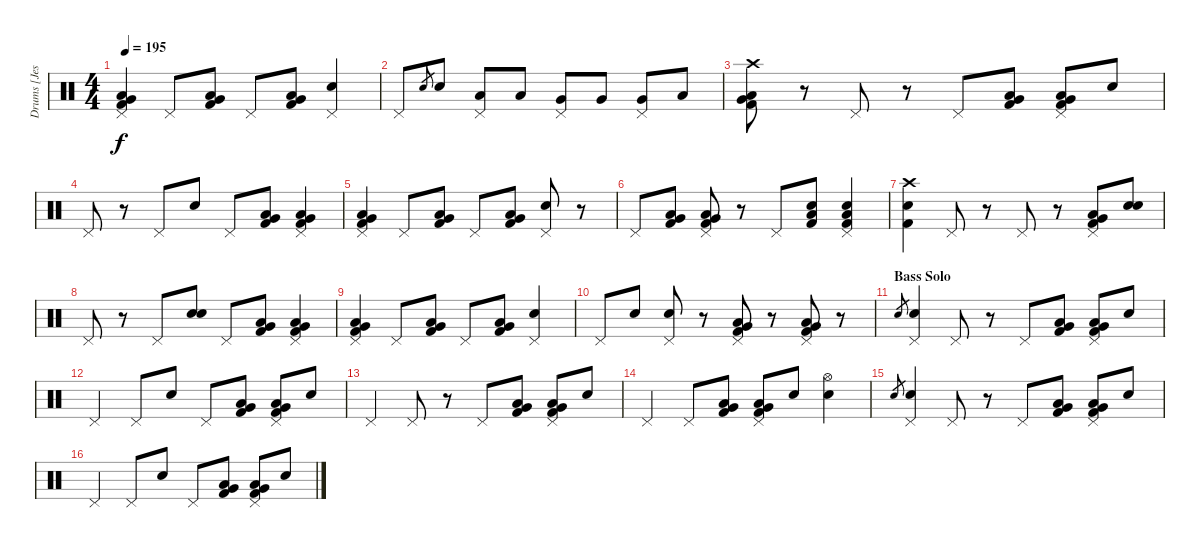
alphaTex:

\track ("Drums [Jesse Ingelevics]" "Drums [Jes") {instrument percussion}
\staff {score}
\articulation defaults
\ts (4 4)
\tempo 195
\clef neutral
\ks c
("Pedal Hi-Hat (hit)" "Very Low Tom (hit)" "Low Floor Tom (hit)" "Kick (hit) 2").4{dy f} "Pedal Hi-Hat (hit)".8 ("Very Low Tom (hit)" "Low Floor Tom (hit)" "Kick (hit) 2").8 "Pedal Hi-Hat (hit)".8 ("Very Low Tom (hit)" "Low Floor Tom (hit)" "Kick (hit) 2").8 ("Pedal Hi-Hat (hit)" "Electric Snare (hit)").4 |
"Pedal Hi-Hat (hit)".8 "Electric Snare (hit)".8{gr} "Electric Snare (hit)".8 ("Pedal Hi-Hat (hit)" "Low Tom (hit)").8 "Low Tom (hit)".8 ("Pedal Hi-Hat (hit)" "Very Low Tom (hit)").8 "Very Low Tom (hit)".8 ("Pedal Hi-Hat (hit)" "Very Low Tom (hit)").8 "Low Floor Tom (hit)".8 |
("Crash high (hit)" "Very Low Tom (hit)" "Low Floor Tom (hit)" "Kick (hit) 2").8 r.8 "Pedal Hi-Hat (hit)".8 r.8 "Pedal Hi-Hat (hit)".8 ("Very Low Tom (hit)" "Low Floor Tom (hit)" "Kick (hit) 2").8 ("Pedal Hi-Hat (hit)" "Very Low Tom (hit)" "Low Floor Tom (hit)" "Kick (hit) 2").8 "Electric Snare (hit)".8 |
"Pedal Hi-Hat (hit)".8 r.8 "Pedal Hi-Hat (hit)".8 "Electric Snare (hit)".8 "Pedal Hi-Hat (hit)".8 ("Very Low Tom (hit)" "Low Floor Tom (hit)" "Kick (hit) 2").8 ("Pedal Hi-Hat (hit)" "Very Low Tom (hit)" "Low Floor Tom (hit)" "Kick (hit) 2").4 |
("Pedal Hi-Hat (hit)" "Very Low Tom (hit)" "Low Floor Tom (hit)" "Kick (hit) 2").4 "Pedal Hi-Hat (hit)".8 ("Very Low Tom (hit)" "Low Floor Tom (hit)" "Kick (hit) 2").8 "Pedal Hi-Hat (hit)".8 ("Very Low Tom (hit)" "Low Floor Tom (hit)" "Kick (hit) 2").8 ("Pedal Hi-Hat (hit)" "Electric Snare (hit)").8 r.8 |
"Pedal Hi-Hat (hit)".8 ("Very Low Tom (hit)" "Low Floor Tom (hit)" "Kick (hit) 2").8 ("Pedal Hi-Hat (hit)" "Very Low Tom (hit)" "Low Floor Tom (hit)" "Kick (hit) 2").8 r.8 "Pedal Hi-Hat (hit)".8 ("Electric Snare (hit)" "Low Floor Tom (hit)" "Kick (hit) 2").8 ("Pedal Hi-Hat (hit)" "Electric Snare (hit)" "Low Floor Tom (hit)" "Kick (hit) 2").4 |
("Crash high (hit)" "Electric Snare (hit)" "Kick (hit) 2").4 "Pedal Hi-Hat (hit)".8 r.8 "Pedal Hi-Hat (hit)".8 r.8 ("Pedal Hi-Hat (hit)" "Very Low Tom (hit)" "Low Floor Tom (hit)" "Kick (hit) 2").8 ("Electric Snare (hit)" "Electric Snare (hit)").8 |
"Pedal Hi-Hat (hit)".8 r.8 "Pedal Hi-Hat (hit)".8 ("Electric Snare (hit)" "Electric Snare (hit)").8 "Pedal Hi-Hat (hit)".8 ("Very Low Tom (hit)" "Low Floor Tom (hit)" "Kick (hit) 2").8 ("Pedal Hi-Hat (hit)" "Very Low Tom (hit)" "Low Floor Tom (hit)" "Kick (hit) 2").4 |
("Pedal Hi-Hat (hit)" "Very Low Tom (hit)" "Low Floor Tom (hit)" "Kick (hit) 2").4 "Pedal Hi-Hat (hit)".8 ("Very Low Tom (hit)" "Low Floor Tom (hit)" "Kick (hit) 2").8 "Pedal Hi-Hat (hit)".8 ("Very Low Tom (hit)" "Low Floor Tom (hit)" "Kick (hit) 2").8 ("Pedal Hi-Hat (hit)" "Electric Snare (hit)").4 |
"Pedal Hi-Hat (hit)".8 "Electric Snare (hit)".8 ("Pedal Hi-Hat (hit)" "Electric Snare (hit)").8 r.8 ("Pedal Hi-Hat (hit)" "Very Low Tom (hit)" "Low Floor Tom (hit)" "Kick (hit) 2").8 r.8 ("Pedal Hi-Hat (hit)" "Very Low Tom (hit)" "Low Floor Tom (hit)" "Kick (hit) 2").8 r.8 |
\section ("" "Bass Solo")
"Electric Snare (hit)".8{gr} ("Pedal Hi-Hat (hit)" "Electric Snare (hit)").4 "Pedal Hi-Hat (hit)".8 r.8 "Pedal Hi-Hat (hit)".8 ("Very Low Tom (hit)" "Low Floor Tom (hit)" "Kick (hit) 2").8 ("Pedal Hi-Hat (hit)" "Very Low Tom (hit)" "Low Floor Tom (hit)" "Kick (hit) 2").8 "Electric Snare (hit)".8 |
"Pedal Hi-Hat (hit)".4 "Pedal Hi-Hat (hit)".8 "Electric Snare (hit)".8 "Pedal Hi-Hat (hit)".8 ("Very Low Tom (hit)" "Low Floor Tom (hit)" "Kick (hit) 2").8 ("Pedal Hi-Hat (hit)" "Very Low Tom (hit)" "Low Floor Tom (hit)" "Kick (hit) 2").8 "Electric Snare (hit)".8 |
"Pedal Hi-Hat (hit)".4 "Pedal Hi-Hat (hit)".8 r.8 "Pedal Hi-Hat (hit)".8 ("Very Low Tom (hit)" "Low Floor Tom (hit)" "Kick (hit) 2").8 ("Pedal Hi-Hat (hit)" "Very Low Tom (hit)" "Low Floor Tom (hit)" "Kick (hit) 2").8 "Electric Snare (hit)".8 |
"Pedal Hi-Hat (hit)".4 "Pedal Hi-Hat (hit)".8 ("Very Low Tom (hit)" "Low Floor Tom (hit)" "Kick (hit) 2").8 ("Pedal Hi-Hat (hit)" "Very Low Tom (hit)" "Low Floor Tom (hit)" "Kick (hit) 2").8 "Electric Snare (hit)".8 ("Hi-Hat (open)" "Electric Snare (hit)").4 |
"Electric Snare (hit)".8{gr} ("Pedal Hi-Hat (hit)" "Electric Snare (hit)").4 "Pedal Hi-Hat (hit)".8 r.8 "Pedal Hi-Hat (hit)".8 ("Very Low Tom (hit)" "Low Floor Tom (hit)" "Kick (hit) 2").8 ("Pedal Hi-Hat (hit)" "Very Low Tom (hit)" "Low Floor Tom (hit)" "Kick (hit) 2").8 "Electric Snare (hit)".8 |
"Pedal Hi-Hat (hit)".4 "Pedal Hi-Hat (hit)".8 "Electric Snare (hit)".8 "Pedal Hi-Hat (hit)".8 ("Very Low Tom (hit)" "Low Floor Tom (hit)" "Kick (hit) 2").8 ("Pedal Hi-Hat (hit)" "Very Low Tom (hit)" "Low Floor Tom (hit)" "Kick (hit) 2").8 "Electric Snare (hit)".8
